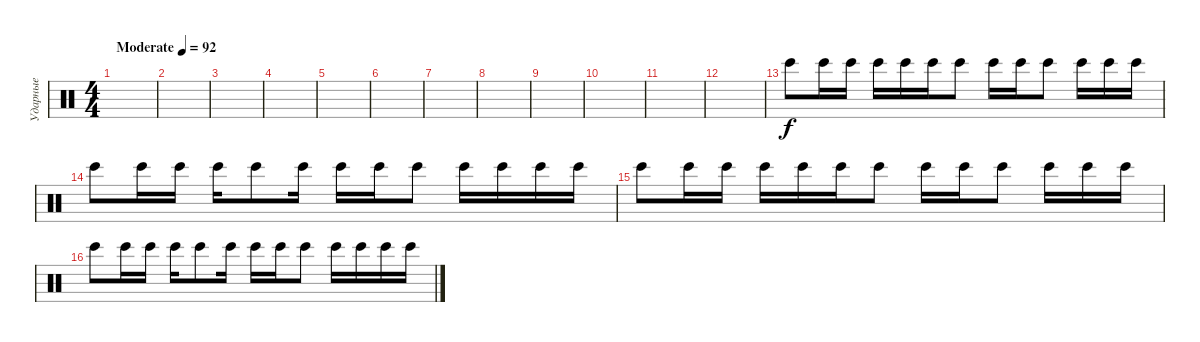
\track ("Ударные" "Ударные") {instrument percussion}
\staff {score}
\articulation defaults
\ts (4 4)
\tempo (92 "Moderate")
\clef neutral
\ks c
|
|
|
|
|
|
|
|
|
|
|
|
"Bongo High (hit)".8 "Bongo High (hit)".16 "Bongo High (hit)".16 "Bongo High (hit)".16 "Bongo High (hit)".16 "Bongo High (hit)".16 "Bongo High (hit)".8 "Bongo High (hit)".16 "Bongo High (hit)".16 "Bongo High (hit)".8 "Bongo High (hit)".16 "Bongo High (hit)".16 "Bongo High (hit)".16 |
"Bongo High (hit)".8 "Bongo High (hit)".16 "Bongo High (hit)".16 "Bongo High (hit)".16 "Bongo High (hit)".8 "Bongo High (hit)".16 "Bongo High (hit)".16 "Bongo High (hit)".16 "Bongo High (hit)".8 "Bongo High (hit)".16 "Bongo High (hit)".16 "Bongo High (hit)".16 "Bongo High (hit)".16 |
"Bongo High (hit)".8 "Bongo High (hit)".16 "Bongo High (hit)".16 "Bongo High (hit)".16 "Bongo High (hit)".16 "Bongo High (hit)".16 "Bongo High (hit)".8 "Bongo High (hit)".16 "Bongo High (hit)".16 "Bongo High (hit)".8 "Bongo High (hit)".16 "Bongo High (hit)".16 "Bongo High (hit)".16 |
"Bongo High (hit)".8 "Bongo High (hit)".16 "Bongo High (hit)".16 "Bongo High (hit)".16 "Bongo High (hit)".8 "Bongo High (hit)".16 "Bongo High (hit)".16 "Bongo High (hit)".16 "Bongo High (hit)".8 "Bongo High (hit)".16 "Bongo High (hit)".16 "Bongo High (hit)".16 "Bongo High (hit)".16
